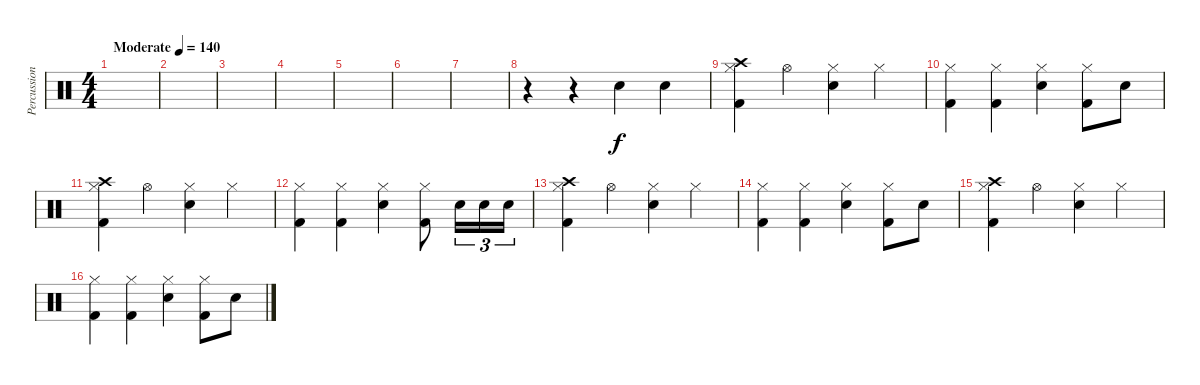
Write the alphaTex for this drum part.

\track ("Percussion" "Percussion") {instrument percussion}
\staff {score}
\articulation defaults
\ts (4 4)
\tempo (140 "Moderate")
\clef neutral
\ks c
|
|
|
|
|
|
|
r.4 r.4 "Electric Snare (hit)".4 "Electric Snare (hit)".4 |
("Crash high (hit)" "Hi-Hat (closed)" "Kick (hit) 2").4 "Hi-Hat (open)".4 ("Hi-Hat (closed)" "Electric Snare (hit)").4 "Hi-Hat (closed)".4 |
("Hi-Hat (closed)" "Kick (hit) 2").4 ("Hi-Hat (closed)" "Kick (hit) 2").4 ("Hi-Hat (closed)" "Electric Snare (hit)").4 ("Hi-Hat (closed)" "Kick (hit) 2").8 "Electric Snare (hit)".8 |
("Crash high (hit)" "Hi-Hat (closed)" "Kick (hit) 2").4 "Hi-Hat (open)".4 ("Hi-Hat (closed)" "Electric Snare (hit)").4 "Hi-Hat (closed)".4 |
("Hi-Hat (closed)" "Kick (hit) 2").4 ("Hi-Hat (closed)" "Kick (hit) 2").4 ("Hi-Hat (closed)" "Electric Snare (hit)").4 ("Hi-Hat (closed)" "Kick (hit) 2").8 "Electric Snare (hit)".16{tu (3 2)} "Electric Snare (hit)".16{tu (3 2)} "Electric Snare (hit)".16{tu (3 2)} |
("Crash high (hit)" "Hi-Hat (closed)" "Kick (hit) 2").4 "Hi-Hat (open)".4 ("Hi-Hat (closed)" "Electric Snare (hit)").4 "Hi-Hat (closed)".4 |
("Hi-Hat (closed)" "Kick (hit) 2").4 ("Hi-Hat (closed)" "Kick (hit) 2").4 ("Hi-Hat (closed)" "Electric Snare (hit)").4 ("Hi-Hat (closed)" "Kick (hit) 2").8 "Electric Snare (hit)".8 |
("Crash high (hit)" "Hi-Hat (closed)" "Kick (hit) 2").4 "Hi-Hat (open)".4 ("Hi-Hat (closed)" "Electric Snare (hit)").4 "Hi-Hat (closed)".4 |
("Hi-Hat (closed)" "Kick (hit) 2").4 ("Hi-Hat (closed)" "Kick (hit) 2").4 ("Hi-Hat (closed)" "Electric Snare (hit)").4 ("Hi-Hat (closed)" "Kick (hit) 2").8 "Electric Snare (hit)".8
